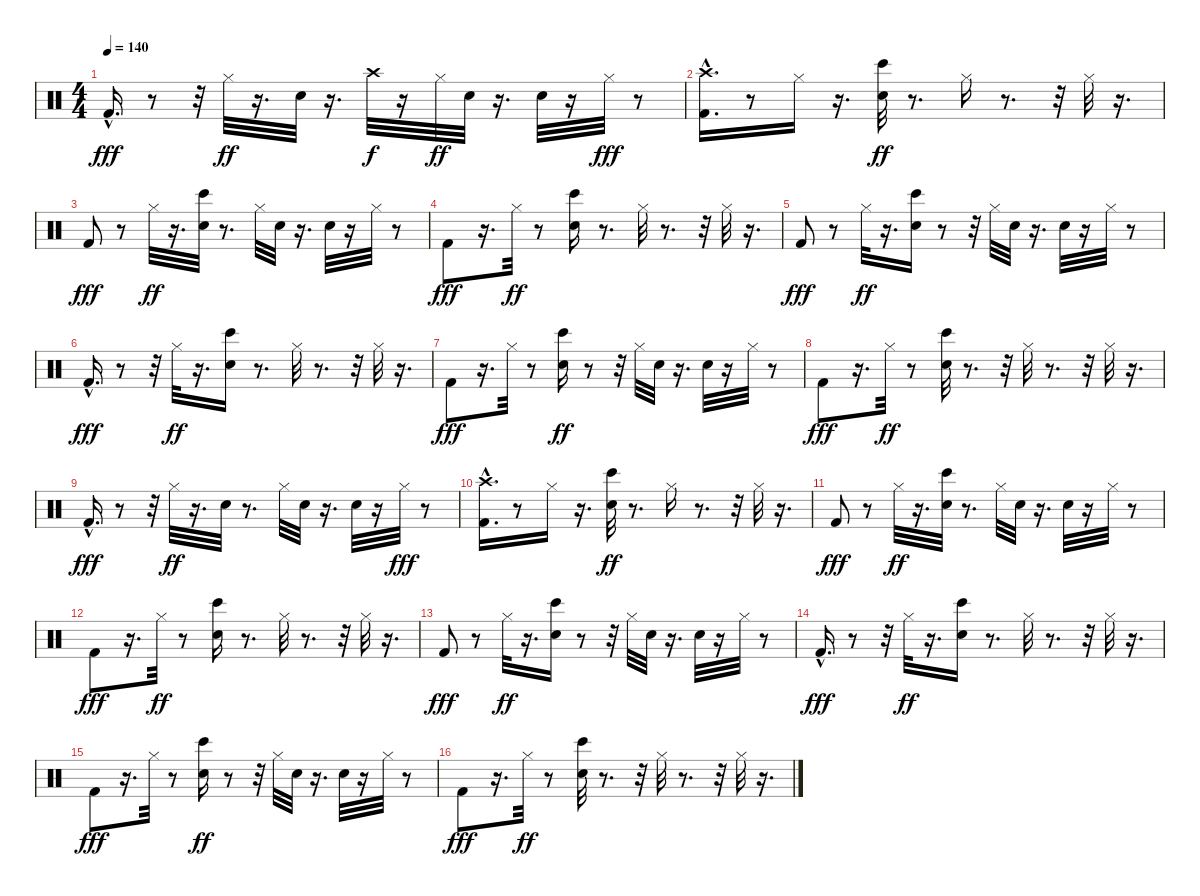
\track "" {instrument percussion}
\staff {score}
\articulation defaults
\ts (4 4)
\tempo 140
\clef neutral
\ks c "Kick (hit) 2"{hac}.16{d dy fff}
r.8 r.32 "Hi-Hat (closed)".32{dy ff} r.16{d} "Electric Snare (hit)".32 r.16{d} "Crash high (hit)".32{dy f} r.16 "Hi-Hat (closed)".32{dy ff} "Electric Snare (hit)".32 r.16{d} "Electric Snare (hit)".32 r.16 "Hi-Hat (closed)".32{dy fff} r.8 |
("Crash high (hit)" "Kick (hit) 2"{hac}).16{d} r.8 "Hi-Hat (closed)".16 r.16{d} ("Bongo High (hit)" "Electric Snare (hit)").32{dy ff} r.8{d} "Hi-Hat (closed)".16 r.8{d} r.32 "Hi-Hat (closed)".32 r.16{d} |
"Kick (hit) 2".8{dy fff} r.8 "Hi-Hat (closed)".32{dy ff} r.16{d} ("Bongo High (hit)" "Electric Snare (hit)").32 r.8{d} "Hi-Hat (closed)".32 "Electric Snare (hit)".32 r.16{d} "Electric Snare (hit)".32 r.16 "Hi-Hat (closed)".32 r.8 |
"Kick (hit) 2".8{dy fff} r.16{d} "Hi-Hat (closed)".32{dy ff} r.8 ("Bongo High (hit)" "Electric Snare (hit)").16 r.8{d} "Hi-Hat (closed)".32 r.8{d} r.32 "Hi-Hat (closed)".32 r.16{d} |
"Kick (hit) 2".8{dy fff} r.8 "Hi-Hat (closed)".32{dy ff} r.16{d} ("Bongo High (hit)" "Electric Snare (hit)").16 r.8 r.32 "Hi-Hat (closed)".32 "Electric Snare (hit)".32 r.16{d} "Electric Snare (hit)".32 r.16 "Hi-Hat (closed)".32 r.8 |
"Kick (hit) 2"{hac}.16{d dy fff} r.8 r.32 "Hi-Hat (closed)".32{dy ff} r.16{d} ("Bongo High (hit)" "Electric Snare (hit)").16 r.8{d} "Hi-Hat (closed)".32 r.8{d} r.32 "Hi-Hat (closed)".32 r.16{d} |
"Kick (hit) 2".8{dy fff} r.16{d} "Hi-Hat (closed)".32 r.8 ("Electric Snare (hit)" "Bongo High (hit)").16{dy ff} r.8 r.32 "Hi-Hat (closed)".32 "Electric Snare (hit)".32 r.16{d} "Electric Snare (hit)".32 r.16 "Hi-Hat (closed)".32 r.8 |
"Kick (hit) 2".8{dy fff} r.16{d} "Hi-Hat (closed)".32{dy ff} r.8 ("Bongo High (hit)" "Electric Snare (hit)").32 r.8{d} r.32 "Hi-Hat (closed)".32 r.8{d} r.32 "Hi-Hat (closed)".32 r.16{d} |
"Kick (hit) 2"{hac}.16{d dy fff} r.8 r.32 "Hi-Hat (closed)".32{dy ff} r.16{d} "Electric Snare (hit)".32 r.8{d} "Hi-Hat (closed)".32 "Electric Snare (hit)".32 r.16{d} "Electric Snare (hit)".32 r.16 "Hi-Hat (closed)".32{dy fff} r.8 |
("Kick (hit) 2"{hac} "Crash high (hit)").16{d} r.8 "Hi-Hat (closed)".16 r.16{d} ("Bongo High (hit)" "Electric Snare (hit)").32{dy ff} r.8{d} "Hi-Hat (closed)".16 r.8{d} r.32 "Hi-Hat (closed)".32 r.16{d} |
"Kick (hit) 2".8{dy fff} r.8 "Hi-Hat (closed)".32{dy ff} r.16{d} ("Bongo High (hit)" "Electric Snare (hit)").32 r.8{d} "Hi-Hat (closed)".32 "Electric Snare (hit)".32 r.16{d} "Electric Snare (hit)".32 r.16 "Hi-Hat (closed)".32 r.8 |
"Kick (hit) 2".8{dy fff} r.16{d} "Hi-Hat (closed)".32{dy ff} r.8 ("Bongo High (hit)" "Electric Snare (hit)").16 r.8{d} "Hi-Hat (closed)".32 r.8{d} r.32 "Hi-Hat (closed)".32 r.16{d} |
"Kick (hit) 2".8{dy fff} r.8 "Hi-Hat (closed)".32{dy ff} r.16{d} ("Bongo High (hit)" "Electric Snare (hit)").16 r.8 r.32 "Hi-Hat (closed)".32 "Electric Snare (hit)".32 r.16{d} "Electric Snare (hit)".32 r.16 "Hi-Hat (closed)".32 r.8 |
"Kick (hit) 2"{hac}.16{d dy fff} r.8 r.32 "Hi-Hat (closed)".32{dy ff} r.16{d} ("Bongo High (hit)" "Electric Snare (hit)").16 r.8{d} "Hi-Hat (closed)".32 r.8{d} r.32 "Hi-Hat (closed)".32 r.16{d} |
"Kick (hit) 2".8{dy fff} r.16{d} "Hi-Hat (closed)".32 r.8 ("Electric Snare (hit)" "Bongo High (hit)").16{dy ff} r.8 r.32 "Hi-Hat (closed)".32 "Electric Snare (hit)".32 r.16{d} "Electric Snare (hit)".32 r.16 "Hi-Hat (closed)".32 r.8 |
"Kick (hit) 2".8{dy fff} r.16{d} "Hi-Hat (closed)".32{dy ff} r.8 ("Bongo High (hit)" "Electric Snare (hit)").32 r.8{d} r.32 "Hi-Hat (closed)".32 r.8{d} r.32 "Hi-Hat (closed)".32 r.16{d}
